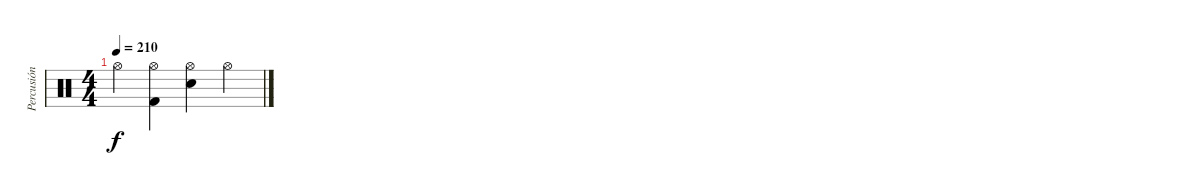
\track ("Percusión" "Percusión") {instrument percussion}
\staff {score}
\articulation defaults
\ts (4 4)
\tempo 210
\clef neutral
\ks c "Hi-Hat (open)".4{dy f}
("Hi-Hat (open)" "Kick (hit) 2").4 ("Hi-Hat (open)" "Snare (hit) 2").4 "Hi-Hat (open)".4
